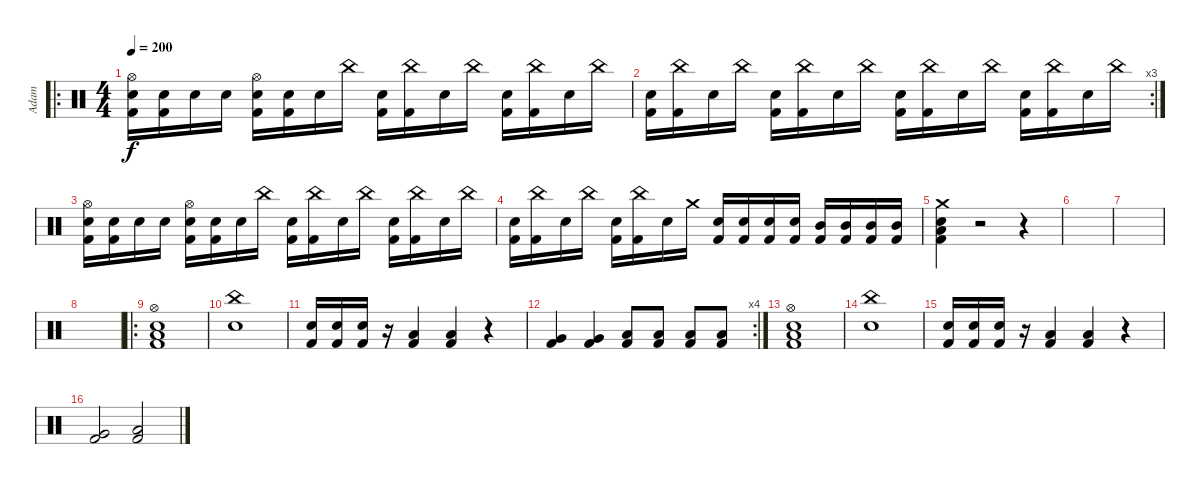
\track ("Adam" "Adam") {instrument percussion}
\staff {score}
\articulation defaults
\ro
\ts (4 4)
\tempo 200
\clef neutral
\ks c
("Hi-Hat (open)" "Electric Snare (hit)" "Kick (hit) 2").16{dy f} ("Electric Snare (hit)" "Kick (hit) 2").16 "Electric Snare (hit)".16 "Electric Snare (hit)".16 ("Hi-Hat (open)" "Electric Snare (hit)" "Kick (hit) 2").16 ("Electric Snare (hit)" "Kick (hit) 2").16 "Electric Snare (hit)".16 "China (hit)".16 ("Electric Snare (hit)" "Kick (hit) 2").16 ("China (hit)" "Kick (hit) 2").16 "Electric Snare (hit)".16 "China (hit)".16 ("Electric Snare (hit)" "Kick (hit) 2").16 ("China (hit)" "Kick (hit) 2").16 "Electric Snare (hit)".16 "China (hit)".16 |
\rc 3
("Electric Snare (hit)" "Kick (hit) 2").16 ("China (hit)" "Kick (hit) 2").16 "Electric Snare (hit)".16 "China (hit)".16 ("Electric Snare (hit)" "Kick (hit) 2").16 ("China (hit)" "Kick (hit) 2").16 "Electric Snare (hit)".16 "China (hit)".16 ("Electric Snare (hit)" "Kick (hit) 2").16 ("China (hit)" "Kick (hit) 2").16 "Electric Snare (hit)".16 "China (hit)".16 ("Electric Snare (hit)" "Kick (hit) 2").16 ("China (hit)" "Kick (hit) 2").16 "Electric Snare (hit)".16 "China (hit)".16 |
("Hi-Hat (open)" "Electric Snare (hit)" "Kick (hit) 2").16 ("Electric Snare (hit)" "Kick (hit) 2").16 "Electric Snare (hit)".16 "Electric Snare (hit)".16 ("Hi-Hat (open)" "Electric Snare (hit)" "Kick (hit) 2").16 ("Electric Snare (hit)" "Kick (hit) 2").16 "Electric Snare (hit)".16 "China (hit)".16 ("Electric Snare (hit)" "Kick (hit) 2").16 ("China (hit)" "Kick (hit) 2").16 "Electric Snare (hit)".16 "China (hit)".16 ("Electric Snare (hit)" "Kick (hit) 2").16 ("China (hit)" "Kick (hit) 2").16 "Electric Snare (hit)".16 "China (hit)".16 |
("Electric Snare (hit)" "Kick (hit) 2").16 ("China (hit)" "Kick (hit) 2").16 "Electric Snare (hit)".16 "China (hit)".16 ("Electric Snare (hit)" "Kick (hit) 2").16 ("China (hit)" "Kick (hit) 2").16 "Electric Snare (hit)".16 "Crash medium (hit)".16 ("Electric Snare (hit)" "Kick (hit) 2").16 ("Electric Snare (hit)" "Kick (hit) 2").16 ("Electric Snare (hit)" "Kick (hit) 2").16 ("Electric Snare (hit)" "Kick (hit) 2").16 ("Mid Tom (hit)" "Kick (hit) 2").16 ("Mid Tom (hit)" "Kick (hit) 2").16 ("Mid Tom (hit)" "Kick (hit) 2").16 ("Mid Tom (hit)" "Kick (hit) 2").16 |
("Crash medium (hit)" "Low Floor Tom (hit)" "Electric Snare (hit)" "Kick (hit) 2").4 r.2 r.4 |
|
|
|
\ro
("Hi-Hat (open)" "Low Floor Tom (hit)" "Electric Snare (hit)" "Kick (hit) 2").1 |
("China (hit)" "Electric Snare (hit)").1 |
("Electric Snare (hit)" "Kick (hit) 2").16 ("Electric Snare (hit)" "Kick (hit) 2").16 ("Electric Snare (hit)" "Kick (hit) 2").16 r.16 ("Low Tom (hit)" "Kick (hit) 2").4 ("Low Tom (hit)" "Kick (hit) 2").4 r.4 |
\rc 4
("Very Low Tom (hit)" "Kick (hit) 2").4 ("Very Low Tom (hit)" "Kick (hit) 2").4 ("Low Floor Tom (hit)" "Kick (hit) 2").8 ("Low Floor Tom (hit)" "Kick (hit) 2").8 ("Low Floor Tom (hit)" "Kick (hit) 2").8 ("Low Floor Tom (hit)" "Kick (hit) 2").8 |
("Hi-Hat (open)" "Low Floor Tom (hit)" "Electric Snare (hit)" "Kick (hit) 2").1 |
("China (hit)" "Electric Snare (hit)").1 |
("Electric Snare (hit)" "Kick (hit) 2").16 ("Electric Snare (hit)" "Kick (hit) 2").16 ("Electric Snare (hit)" "Kick (hit) 2").16 r.16 ("Low Tom (hit)" "Kick (hit) 2").4 ("Low Tom (hit)" "Kick (hit) 2").4 r.4 |
("Very Low Tom (hit)" "Kick (hit) 2").2 ("Low Floor Tom (hit)" "Kick (hit) 2").2
